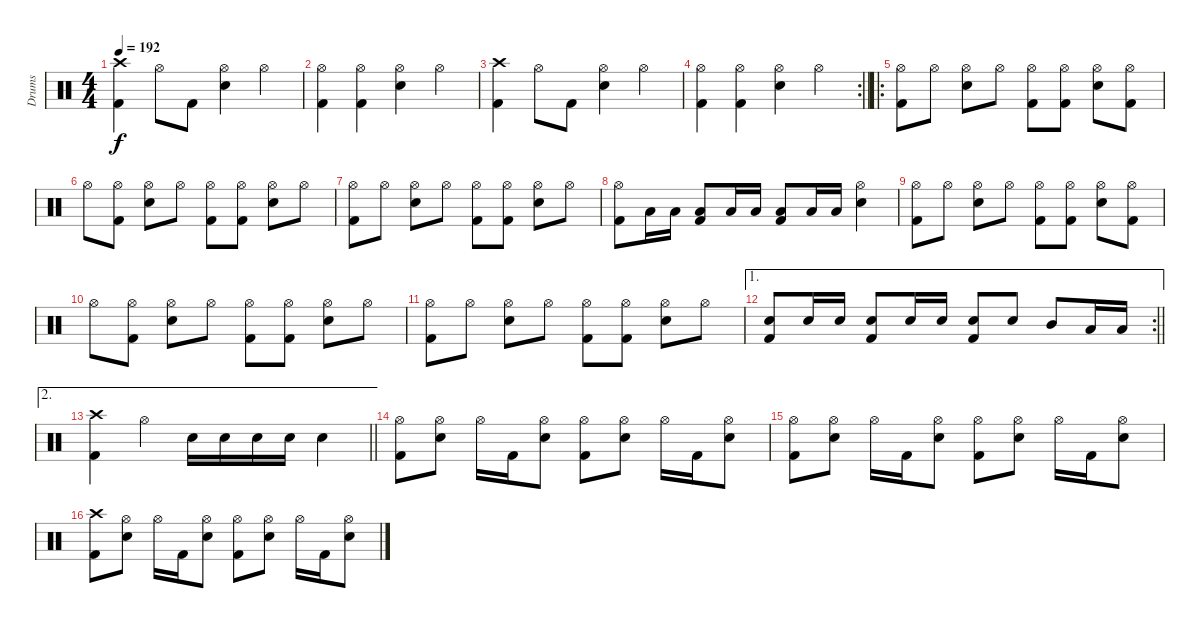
\track ("Drums" "Drums") {instrument percussion}
\staff {score}
\articulation defaults
\ts (4 4)
\tempo 192
\clef neutral
\ks c
("Crash high (hit)" "Kick (hit) 2").4{dy f} "Hi-Hat (open)".8 "Kick (hit) 2".8 ("Hi-Hat (open)" "Snare (hit) 2").4 "Hi-Hat (open)".4 |
("Hi-Hat (open)" "Kick (hit) 2").4 ("Hi-Hat (open)" "Kick (hit) 2").4 ("Hi-Hat (open)" "Snare (hit) 2").4 "Hi-Hat (open)".4 |
("Crash high (hit)" "Kick (hit) 2").4 "Hi-Hat (open)".8 "Kick (hit) 2".8 ("Hi-Hat (open)" "Snare (hit) 2").4 "Hi-Hat (open)".4 |
\rc 2
\barLineRight lightlight
("Hi-Hat (open)" "Kick (hit) 2").4 ("Hi-Hat (open)" "Kick (hit) 2").4 ("Hi-Hat (open)" "Snare (hit) 2").4 "Hi-Hat (open)".4 |
\ro
("Hi-Hat (open)" "Kick (hit) 2").8 "Hi-Hat (open)".8 ("Hi-Hat (open)" "Snare (hit) 2").8 "Hi-Hat (open)".8 ("Hi-Hat (open)" "Kick (hit) 2").8 ("Hi-Hat (open)" "Kick (hit) 2").8 ("Hi-Hat (open)" "Snare (hit) 2").8 ("Hi-Hat (open)" "Kick (hit) 2").8 |
"Hi-Hat (open)".8 ("Hi-Hat (open)" "Kick (hit) 2").8 ("Hi-Hat (open)" "Snare (hit) 2").8 "Hi-Hat (open)".8 ("Hi-Hat (open)" "Kick (hit) 2").8 ("Hi-Hat (open)" "Kick (hit) 2").8 ("Hi-Hat (open)" "Snare (hit) 2").8 "Hi-Hat (open)".8 |
("Hi-Hat (open)" "Kick (hit) 2").8 "Hi-Hat (open)".8 ("Hi-Hat (open)" "Snare (hit) 2").8 "Hi-Hat (open)".8 ("Hi-Hat (open)" "Kick (hit) 2").8 ("Hi-Hat (open)" "Kick (hit) 2").8 ("Hi-Hat (open)" "Snare (hit) 2").8 "Hi-Hat (open)".8 |
("Hi-Hat (open)" "Kick (hit) 2").8 "Low Floor Tom (hit)".16 "Low Floor Tom (hit)".16 ("Low Floor Tom (hit)" "Kick (hit) 2").8 "Low Floor Tom (hit)".16 "Low Floor Tom (hit)".16 ("Low Floor Tom (hit)" "Kick (hit) 2").8 "Low Floor Tom (hit)".16 "Low Floor Tom (hit)".16 ("Hi-Hat (open)" "Snare (hit) 2").4 |
("Hi-Hat (open)" "Kick (hit) 2").8 "Hi-Hat (open)".8 ("Hi-Hat (open)" "Snare (hit) 2").8 "Hi-Hat (open)".8 ("Hi-Hat (open)" "Kick (hit) 2").8 ("Hi-Hat (open)" "Kick (hit) 2").8 ("Hi-Hat (open)" "Snare (hit) 2").8 ("Hi-Hat (open)" "Kick (hit) 2").8 |
"Hi-Hat (open)".8 ("Hi-Hat (open)" "Kick (hit) 2").8 ("Hi-Hat (open)" "Snare (hit) 2").8 "Hi-Hat (open)".8 ("Hi-Hat (open)" "Kick (hit) 2").8 ("Hi-Hat (open)" "Kick (hit) 2").8 ("Hi-Hat (open)" "Snare (hit) 2").8 "Hi-Hat (open)".8 |
("Hi-Hat (open)" "Kick (hit) 2").8 "Hi-Hat (open)".8 ("Hi-Hat (open)" "Snare (hit) 2").8 "Hi-Hat (open)".8 ("Hi-Hat (open)" "Kick (hit) 2").8 ("Hi-Hat (open)" "Kick (hit) 2").8 ("Hi-Hat (open)" "Snare (hit) 2").8 "Hi-Hat (open)".8 |
\ae 1
\rc 2
\barLineRight lightlight
("Snare (hit) 2" "Kick (hit) 2").8 "Snare (hit) 2".16 "Snare (hit) 2".16 ("Snare (hit) 2" "Kick (hit) 2").8 "Snare (hit) 2".16 "Snare (hit) 2".16 ("Snare (hit) 2" "Kick (hit) 2").8 "Snare (hit) 2".8 "Mid Tom (hit)".8 "Low Floor Tom (hit)".16 "Low Floor Tom (hit)".16 |
\ae 2
\barLineRight lightlight
("Crash high (hit)" "Kick (hit) 2").4 "Hi-Hat (open)".4 "Snare (hit) 2".16 "Snare (hit) 2".16 "Snare (hit) 2".16 "Snare (hit) 2".16 "Snare (hit) 2".4 |
("Hi-Hat (open)" "Kick (hit) 2").8 ("Hi-Hat (open)" "Snare (hit) 2").8 "Hi-Hat (open)".16 "Kick (hit) 2".16 ("Hi-Hat (open)" "Snare (hit) 2").8 ("Hi-Hat (open)" "Kick (hit) 2").8 ("Hi-Hat (open)" "Snare (hit) 2").8 "Hi-Hat (open)".16 "Kick (hit) 2".16 ("Hi-Hat (open)" "Snare (hit) 2").8 |
("Hi-Hat (open)" "Kick (hit) 2").8 ("Hi-Hat (open)" "Snare (hit) 2").8 "Hi-Hat (open)".16 "Kick (hit) 2".16 ("Hi-Hat (open)" "Snare (hit) 2").8 ("Hi-Hat (open)" "Kick (hit) 2").8 ("Hi-Hat (open)" "Snare (hit) 2").8 "Hi-Hat (open)".16 "Kick (hit) 2".16 ("Hi-Hat (open)" "Snare (hit) 2").8 |
("Crash high (hit)" "Kick (hit) 2").8 ("Hi-Hat (open)" "Snare (hit) 2").8 "Hi-Hat (open)".16 "Kick (hit) 2".16 ("Hi-Hat (open)" "Snare (hit) 2").8 ("Hi-Hat (open)" "Kick (hit) 2").8 ("Hi-Hat (open)" "Snare (hit) 2").8 "Hi-Hat (open)".16 "Kick (hit) 2".16 ("Hi-Hat (open)" "Snare (hit) 2").8
